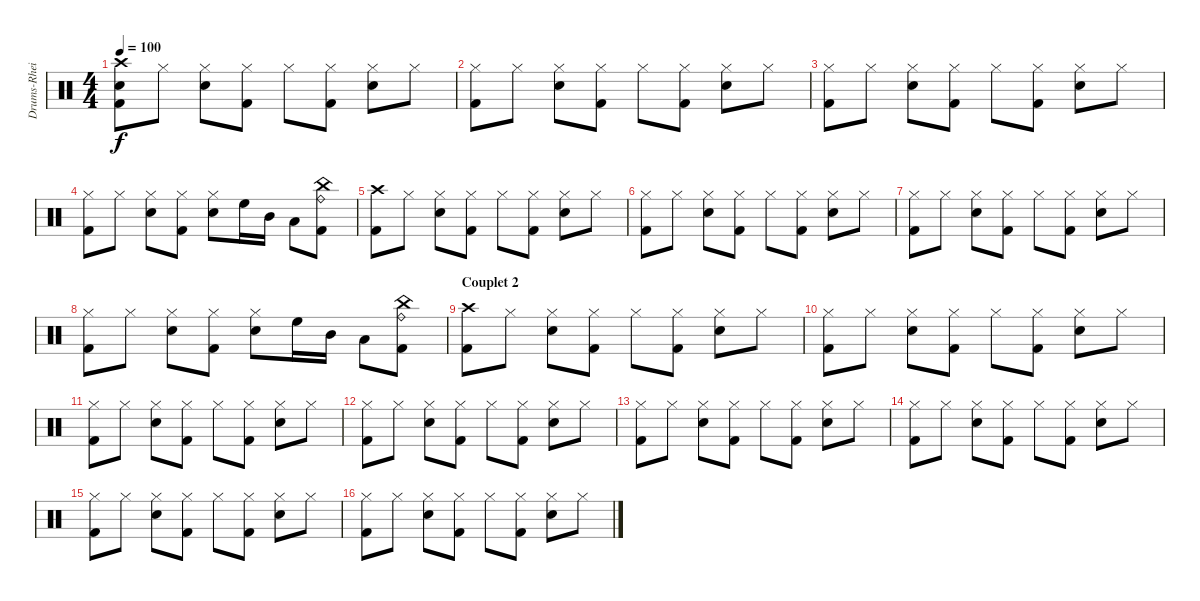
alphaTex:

\track ("Drums-Rhein" "Drums-Rhei") {instrument percussion}
\staff {score}
\articulation defaults
\ts (4 4)
\tempo 100
\clef neutral
\ks c
("Crash high (hit)" "Snare (hit) 2" "Kick (hit) 2").8{dy f} "Hi-Hat (closed)".8 ("Hi-Hat (closed)" "Snare (hit) 2").8 ("Hi-Hat (closed)" "Kick (hit) 2").8 "Hi-Hat (closed)".8 ("Hi-Hat (closed)" "Kick (hit) 2").8 ("Hi-Hat (closed)" "Snare (hit) 2").8 "Hi-Hat (closed)".8 |
("Hi-Hat (closed)" "Kick (hit) 2").8 "Hi-Hat (closed)".8 ("Hi-Hat (closed)" "Snare (hit) 2").8 ("Hi-Hat (closed)" "Kick (hit) 2").8 "Hi-Hat (closed)".8 ("Hi-Hat (closed)" "Kick (hit) 2").8 ("Hi-Hat (closed)" "Snare (hit) 2").8 "Hi-Hat (closed)".8 |
("Hi-Hat (closed)" "Kick (hit) 2").8 "Hi-Hat (closed)".8 ("Hi-Hat (closed)" "Snare (hit) 2").8 ("Hi-Hat (closed)" "Kick (hit) 2").8 "Hi-Hat (closed)".8 ("Hi-Hat (closed)" "Kick (hit) 2").8 ("Hi-Hat (closed)" "Snare (hit) 2").8 "Hi-Hat (closed)".8 |
("Hi-Hat (closed)" "Kick (hit) 2").8 "Hi-Hat (closed)".8 ("Hi-Hat (closed)" "Snare (hit) 2").8 ("Hi-Hat (closed)" "Kick (hit) 2").8 ("Hi-Hat (closed)" "Snare (hit) 2").8 "High Floor Tom (hit)".16 "Mid Tom (hit)".16 "Low Tom (hit)".8 ("Ride (bell)" "China (hit)" "Kick (hit) 2").8 |
("Crash high (hit)" "Kick (hit) 2").8 "Hi-Hat (closed)".8 ("Hi-Hat (closed)" "Snare (hit) 2").8 ("Hi-Hat (closed)" "Kick (hit) 2").8 "Hi-Hat (closed)".8 ("Hi-Hat (closed)" "Kick (hit) 2").8 ("Hi-Hat (closed)" "Snare (hit) 2").8 "Hi-Hat (closed)".8 |
("Hi-Hat (closed)" "Kick (hit) 2").8 "Hi-Hat (closed)".8 ("Hi-Hat (closed)" "Snare (hit) 2").8 ("Hi-Hat (closed)" "Kick (hit) 2").8 "Hi-Hat (closed)".8 ("Hi-Hat (closed)" "Kick (hit) 2").8 ("Hi-Hat (closed)" "Snare (hit) 2").8 "Hi-Hat (closed)".8 |
("Hi-Hat (closed)" "Kick (hit) 2").8 "Hi-Hat (closed)".8 ("Hi-Hat (closed)" "Snare (hit) 2").8 ("Hi-Hat (closed)" "Kick (hit) 2").8 "Hi-Hat (closed)".8 ("Hi-Hat (closed)" "Kick (hit) 2").8 ("Hi-Hat (closed)" "Snare (hit) 2").8 "Hi-Hat (closed)".8 |
("Hi-Hat (closed)" "Kick (hit) 2").8 "Hi-Hat (closed)".8 ("Hi-Hat (closed)" "Snare (hit) 2").8 ("Hi-Hat (closed)" "Kick (hit) 2").8 ("Hi-Hat (closed)" "Snare (hit) 2").8 "High Floor Tom (hit)".16 "Mid Tom (hit)".16 "Low Tom (hit)".8 ("Ride (bell)" "China (hit)" "Kick (hit) 2").8 |
\section ("" "Couplet 2")
("Crash high (hit)" "Kick (hit) 2").8 "Hi-Hat (closed)".8 ("Hi-Hat (closed)" "Snare (hit) 2").8 ("Hi-Hat (closed)" "Kick (hit) 2").8 "Hi-Hat (closed)".8 ("Hi-Hat (closed)" "Kick (hit) 2").8 ("Hi-Hat (closed)" "Snare (hit) 2").8 "Hi-Hat (closed)".8 |
("Hi-Hat (closed)" "Kick (hit) 2").8 "Hi-Hat (closed)".8 ("Hi-Hat (closed)" "Snare (hit) 2").8 ("Hi-Hat (closed)" "Kick (hit) 2").8 "Hi-Hat (closed)".8 ("Hi-Hat (closed)" "Kick (hit) 2").8 ("Hi-Hat (closed)" "Snare (hit) 2").8 "Hi-Hat (closed)".8 |
("Hi-Hat (closed)" "Kick (hit) 2").8 "Hi-Hat (closed)".8 ("Hi-Hat (closed)" "Snare (hit) 2").8 ("Hi-Hat (closed)" "Kick (hit) 2").8 "Hi-Hat (closed)".8 ("Hi-Hat (closed)" "Kick (hit) 2").8 ("Hi-Hat (closed)" "Snare (hit) 2").8 "Hi-Hat (closed)".8 |
("Hi-Hat (closed)" "Kick (hit) 2").8 "Hi-Hat (closed)".8 ("Hi-Hat (closed)" "Snare (hit) 2").8 ("Hi-Hat (closed)" "Kick (hit) 2").8 "Hi-Hat (closed)".8 ("Hi-Hat (closed)" "Kick (hit) 2").8 ("Hi-Hat (closed)" "Snare (hit) 2").8 "Hi-Hat (closed)".8 |
("Hi-Hat (closed)" "Kick (hit) 2").8 "Hi-Hat (closed)".8 ("Hi-Hat (closed)" "Snare (hit) 2").8 ("Hi-Hat (closed)" "Kick (hit) 2").8 "Hi-Hat (closed)".8 ("Hi-Hat (closed)" "Kick (hit) 2").8 ("Hi-Hat (closed)" "Snare (hit) 2").8 "Hi-Hat (closed)".8 |
("Hi-Hat (closed)" "Kick (hit) 2").8 "Hi-Hat (closed)".8 ("Hi-Hat (closed)" "Snare (hit) 2").8 ("Hi-Hat (closed)" "Kick (hit) 2").8 "Hi-Hat (closed)".8 ("Hi-Hat (closed)" "Kick (hit) 2").8 ("Hi-Hat (closed)" "Snare (hit) 2").8 "Hi-Hat (closed)".8 |
("Hi-Hat (closed)" "Kick (hit) 2").8 "Hi-Hat (closed)".8 ("Hi-Hat (closed)" "Snare (hit) 2").8 ("Hi-Hat (closed)" "Kick (hit) 2").8 "Hi-Hat (closed)".8 ("Hi-Hat (closed)" "Kick (hit) 2").8 ("Hi-Hat (closed)" "Snare (hit) 2").8 "Hi-Hat (closed)".8 |
("Hi-Hat (closed)" "Kick (hit) 2").8 "Hi-Hat (closed)".8 ("Hi-Hat (closed)" "Snare (hit) 2").8 ("Hi-Hat (closed)" "Kick (hit) 2").8 "Hi-Hat (closed)".8 ("Hi-Hat (closed)" "Kick (hit) 2").8 ("Hi-Hat (closed)" "Snare (hit) 2").8 "Hi-Hat (closed)".8
